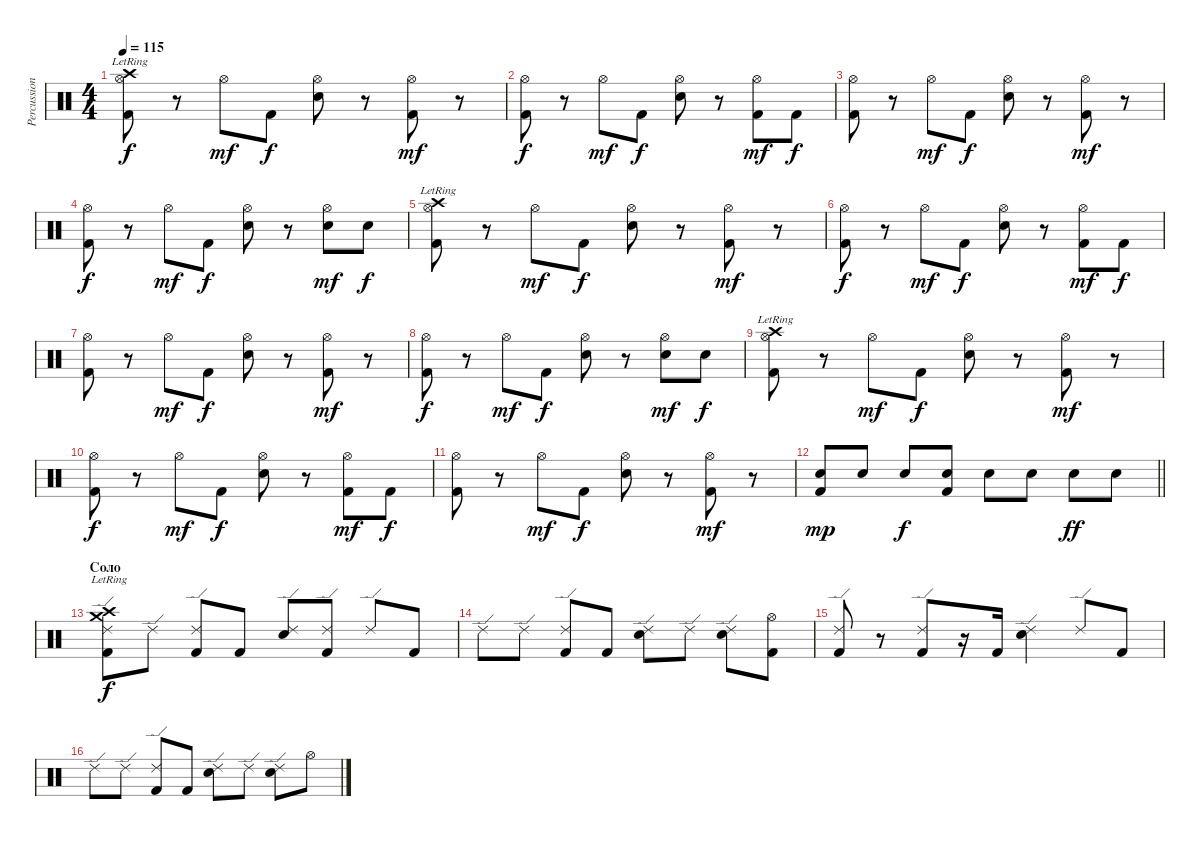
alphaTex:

\track ("Percussions" "Percussion") {instrument percussion}
\staff {score}
\articulation defaults
\ts (4 4)
\tempo 115
\clef neutral
\ks c
("Crash high (hit)"{lr} "Kick (hit) 2" "Hi-Hat (open)").8{dy f} r.8 "Hi-Hat (open)".8{dy mf} "Kick (hit) 2".8{dy f} ("Electric Snare (hit)" "Hi-Hat (open)").8 r.8 ("Kick (hit) 2" "Hi-Hat (open)").8{dy mf} r.8 |
("Kick (hit) 2" "Hi-Hat (open)").8{dy f} r.8 "Hi-Hat (open)".8{dy mf} "Kick (hit) 2".8{dy f} ("Electric Snare (hit)" "Hi-Hat (open)").8 r.8 ("Kick (hit) 2" "Hi-Hat (open)").8{dy mf} "Kick (hit) 2".8{dy f} |
("Kick (hit) 2" "Hi-Hat (open)").8 r.8 "Hi-Hat (open)".8{dy mf} "Kick (hit) 2".8{dy f} ("Electric Snare (hit)" "Hi-Hat (open)").8 r.8 ("Kick (hit) 2" "Hi-Hat (open)").8{dy mf} r.8 |
("Kick (hit) 2" "Hi-Hat (open)").8{dy f} r.8 "Hi-Hat (open)".8{dy mf} "Kick (hit) 2".8{dy f} ("Electric Snare (hit)" "Hi-Hat (open)").8 r.8 ("Electric Snare (hit)" "Hi-Hat (open)").8{dy mf} "Electric Snare (hit)".8{dy f} |
("Crash high (hit)"{lr} "Kick (hit) 2" "Hi-Hat (open)").8 r.8 "Hi-Hat (open)".8{dy mf} "Kick (hit) 2".8{dy f} ("Electric Snare (hit)" "Hi-Hat (open)").8 r.8 ("Kick (hit) 2" "Hi-Hat (open)").8{dy mf} r.8 |
("Kick (hit) 2" "Hi-Hat (open)").8{dy f} r.8 "Hi-Hat (open)".8{dy mf} "Kick (hit) 2".8{dy f} ("Electric Snare (hit)" "Hi-Hat (open)").8 r.8 ("Kick (hit) 2" "Hi-Hat (open)").8{dy mf} "Kick (hit) 2".8{dy f} |
("Kick (hit) 2" "Hi-Hat (open)").8 r.8 "Hi-Hat (open)".8{dy mf} "Kick (hit) 2".8{dy f} ("Electric Snare (hit)" "Hi-Hat (open)").8 r.8 ("Kick (hit) 2" "Hi-Hat (open)").8{dy mf} r.8 |
("Kick (hit) 2" "Hi-Hat (open)").8{dy f} r.8 "Hi-Hat (open)".8{dy mf} "Kick (hit) 2".8{dy f} ("Electric Snare (hit)" "Hi-Hat (open)").8 r.8 ("Electric Snare (hit)" "Hi-Hat (open)").8{dy mf} "Electric Snare (hit)".8{dy f} |
("Crash high (hit)"{lr} "Kick (hit) 2" "Hi-Hat (open)").8 r.8 "Hi-Hat (open)".8{dy mf} "Kick (hit) 2".8{dy f} ("Electric Snare (hit)" "Hi-Hat (open)").8 r.8 ("Kick (hit) 2" "Hi-Hat (open)").8{dy mf} r.8 |
("Kick (hit) 2" "Hi-Hat (open)").8{dy f} r.8 "Hi-Hat (open)".8{dy mf} "Kick (hit) 2".8{dy f} ("Electric Snare (hit)" "Hi-Hat (open)").8 r.8 ("Kick (hit) 2" "Hi-Hat (open)").8{dy mf} "Kick (hit) 2".8{dy f} |
("Kick (hit) 2" "Hi-Hat (open)").8 r.8 "Hi-Hat (open)".8{dy mf} "Kick (hit) 2".8{dy f} ("Electric Snare (hit)" "Hi-Hat (open)").8 r.8 ("Kick (hit) 2" "Hi-Hat (open)").8{dy mf} r.8 |
\barLineRight lightlight
("Electric Snare (hit)" "Kick (hit) 2").8{dy mp} "Electric Snare (hit)".8 "Electric Snare (hit)".8{dy f} ("Electric Snare (hit)" "Kick (hit) 2").8 "Electric Snare (hit)".8 "Electric Snare (hit)".8 "Electric Snare (hit)".8{dy ff} "Electric Snare (hit)".8 |
\section ("" "Соло")
("Crash medium (hit)"{lr} "Crash high (hit)"{lr} "Kick (hit) 2" "Ride (edge) 2").8{dy f} "Ride (edge) 2".8 ("Kick (hit) 2" "Ride (edge) 2").8 "Kick (hit) 2".8 ("Electric Snare (hit)" "Ride (edge) 2").8 ("Kick (hit) 2" "Ride (edge) 2").8 "Ride (edge) 2".8 "Kick (hit) 2".8 |
"Ride (edge) 2".8 "Ride (edge) 2".8 ("Ride (edge) 2" "Kick (hit) 2").8 "Kick (hit) 2".8 ("Electric Snare (hit)" "Ride (edge) 2").8 "Ride (edge) 2".8 ("Electric Snare (hit)" "Ride (edge) 2").8 ("Kick (hit) 2" "Hi-Hat (open)").8 |
("Ride (edge) 2" "Kick (hit) 2").8 r.8 ("Ride (edge) 2" "Kick (hit) 2").8 r.16 "Kick (hit) 2".16 ("Ride (edge) 2" "Electric Snare (hit)").4 "Ride (edge) 2".8 "Kick (hit) 2".8 |
"Ride (edge) 2".8 "Ride (edge) 2".8 ("Ride (edge) 2" "Kick (hit) 2").8 "Kick (hit) 2".8 ("Electric Snare (hit)" "Ride (edge) 2").8 "Ride (edge) 2".8 ("Electric Snare (hit)" "Ride (edge) 2").8 "Hi-Hat (open)".8
